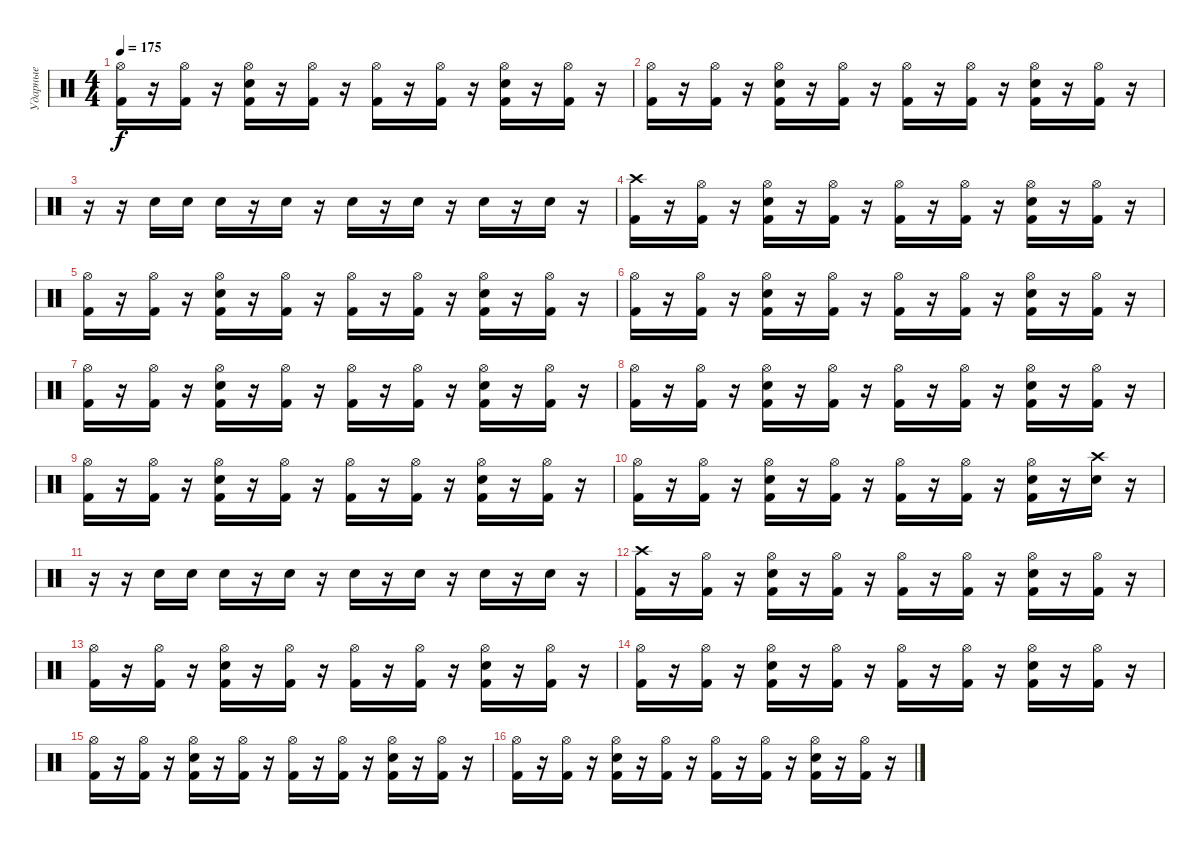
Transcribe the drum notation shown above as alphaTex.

\track ("Ударные" "Ударные") {instrument percussion}
\staff {score}
\articulation defaults
\ts (4 4)
\tempo 175
\clef neutral
\ks c
("Hi-Hat (open)" "Kick (hit) 2").16{dy f} r.16 ("Hi-Hat (open)" "Kick (hit) 2").16 r.16 ("Hi-Hat (open)" "Electric Snare (hit)" "Kick (hit) 2").16 r.16 ("Hi-Hat (open)" "Kick (hit) 2").16 r.16 ("Hi-Hat (open)" "Kick (hit) 2").16 r.16 ("Hi-Hat (open)" "Kick (hit) 2").16 r.16 ("Hi-Hat (open)" "Electric Snare (hit)" "Kick (hit) 2").16 r.16 ("Hi-Hat (open)" "Kick (hit) 2").16 r.16 |
("Hi-Hat (open)" "Kick (hit) 2").16 r.16 ("Hi-Hat (open)" "Kick (hit) 2").16 r.16 ("Hi-Hat (open)" "Electric Snare (hit)" "Kick (hit) 2").16 r.16 ("Hi-Hat (open)" "Kick (hit) 2").16 r.16 ("Hi-Hat (open)" "Kick (hit) 2").16 r.16 ("Hi-Hat (open)" "Kick (hit) 2").16 r.16 ("Hi-Hat (open)" "Electric Snare (hit)" "Kick (hit) 2").16 r.16 ("Hi-Hat (open)" "Kick (hit) 2").16 r.16 |
r.16 r.16 "Electric Snare (hit)".16 "Electric Snare (hit)".16 "Electric Snare (hit)".16 r.16 "Electric Snare (hit)".16 r.16 "Electric Snare (hit)".16 r.16 "Electric Snare (hit)".16 r.16 "Electric Snare (hit)".16 r.16 "Electric Snare (hit)".16 r.16 |
("Crash high (hit)" "Kick (hit) 2").16 r.16 ("Hi-Hat (open)" "Kick (hit) 2").16 r.16 ("Hi-Hat (open)" "Electric Snare (hit)" "Kick (hit) 2").16 r.16 ("Hi-Hat (open)" "Kick (hit) 2").16 r.16 ("Hi-Hat (open)" "Kick (hit) 2").16 r.16 ("Hi-Hat (open)" "Kick (hit) 2").16 r.16 ("Hi-Hat (open)" "Electric Snare (hit)" "Kick (hit) 2").16 r.16 ("Hi-Hat (open)" "Kick (hit) 2").16 r.16 |
("Hi-Hat (open)" "Kick (hit) 2").16 r.16 ("Hi-Hat (open)" "Kick (hit) 2").16 r.16 ("Hi-Hat (open)" "Electric Snare (hit)" "Kick (hit) 2").16 r.16 ("Hi-Hat (open)" "Kick (hit) 2").16 r.16 ("Hi-Hat (open)" "Kick (hit) 2").16 r.16 ("Hi-Hat (open)" "Kick (hit) 2").16 r.16 ("Hi-Hat (open)" "Electric Snare (hit)" "Kick (hit) 2").16 r.16 ("Hi-Hat (open)" "Kick (hit) 2").16 r.16 |
("Hi-Hat (open)" "Kick (hit) 2").16 r.16 ("Hi-Hat (open)" "Kick (hit) 2").16 r.16 ("Hi-Hat (open)" "Electric Snare (hit)" "Kick (hit) 2").16 r.16 ("Hi-Hat (open)" "Kick (hit) 2").16 r.16 ("Hi-Hat (open)" "Kick (hit) 2").16 r.16 ("Hi-Hat (open)" "Kick (hit) 2").16 r.16 ("Hi-Hat (open)" "Electric Snare (hit)" "Kick (hit) 2").16 r.16 ("Hi-Hat (open)" "Kick (hit) 2").16 r.16 |
("Hi-Hat (open)" "Kick (hit) 2").16 r.16 ("Hi-Hat (open)" "Kick (hit) 2").16 r.16 ("Hi-Hat (open)" "Electric Snare (hit)" "Kick (hit) 2").16 r.16 ("Hi-Hat (open)" "Kick (hit) 2").16 r.16 ("Hi-Hat (open)" "Kick (hit) 2").16 r.16 ("Hi-Hat (open)" "Kick (hit) 2").16 r.16 ("Hi-Hat (open)" "Electric Snare (hit)" "Kick (hit) 2").16 r.16 ("Hi-Hat (open)" "Kick (hit) 2").16 r.16 |
("Hi-Hat (open)" "Kick (hit) 2").16 r.16 ("Hi-Hat (open)" "Kick (hit) 2").16 r.16 ("Hi-Hat (open)" "Electric Snare (hit)" "Kick (hit) 2").16 r.16 ("Hi-Hat (open)" "Kick (hit) 2").16 r.16 ("Hi-Hat (open)" "Kick (hit) 2").16 r.16 ("Hi-Hat (open)" "Kick (hit) 2").16 r.16 ("Hi-Hat (open)" "Electric Snare (hit)" "Kick (hit) 2").16 r.16 ("Hi-Hat (open)" "Kick (hit) 2").16 r.16 |
("Hi-Hat (open)" "Kick (hit) 2").16 r.16 ("Hi-Hat (open)" "Kick (hit) 2").16 r.16 ("Hi-Hat (open)" "Electric Snare (hit)" "Kick (hit) 2").16 r.16 ("Hi-Hat (open)" "Kick (hit) 2").16 r.16 ("Hi-Hat (open)" "Kick (hit) 2").16 r.16 ("Hi-Hat (open)" "Kick (hit) 2").16 r.16 ("Hi-Hat (open)" "Electric Snare (hit)" "Kick (hit) 2").16 r.16 ("Hi-Hat (open)" "Kick (hit) 2").16 r.16 |
("Hi-Hat (open)" "Kick (hit) 2").16 r.16 ("Hi-Hat (open)" "Kick (hit) 2").16 r.16 ("Hi-Hat (open)" "Electric Snare (hit)" "Kick (hit) 2").16 r.16 ("Hi-Hat (open)" "Kick (hit) 2").16 r.16 ("Hi-Hat (open)" "Kick (hit) 2").16 r.16 ("Hi-Hat (open)" "Kick (hit) 2").16 r.16 ("Hi-Hat (open)" "Electric Snare (hit)" "Kick (hit) 2").16 r.16 ("Crash high (hit)" "Electric Snare (hit)").16 r.16 |
r.16 r.16 "Electric Snare (hit)".16 "Electric Snare (hit)".16 "Electric Snare (hit)".16 r.16 "Electric Snare (hit)".16 r.16 "Electric Snare (hit)".16 r.16 "Electric Snare (hit)".16 r.16 "Electric Snare (hit)".16 r.16 "Electric Snare (hit)".16 r.16 |
("Crash high (hit)" "Kick (hit) 2").16 r.16 ("Hi-Hat (open)" "Kick (hit) 2").16 r.16 ("Hi-Hat (open)" "Electric Snare (hit)" "Kick (hit) 2").16 r.16 ("Hi-Hat (open)" "Kick (hit) 2").16 r.16 ("Hi-Hat (open)" "Kick (hit) 2").16 r.16 ("Hi-Hat (open)" "Kick (hit) 2").16 r.16 ("Hi-Hat (open)" "Electric Snare (hit)" "Kick (hit) 2").16 r.16 ("Hi-Hat (open)" "Kick (hit) 2").16 r.16 |
("Hi-Hat (open)" "Kick (hit) 2").16 r.16 ("Hi-Hat (open)" "Kick (hit) 2").16 r.16 ("Hi-Hat (open)" "Electric Snare (hit)" "Kick (hit) 2").16 r.16 ("Hi-Hat (open)" "Kick (hit) 2").16 r.16 ("Hi-Hat (open)" "Kick (hit) 2").16 r.16 ("Hi-Hat (open)" "Kick (hit) 2").16 r.16 ("Hi-Hat (open)" "Electric Snare (hit)" "Kick (hit) 2").16 r.16 ("Hi-Hat (open)" "Kick (hit) 2").16 r.16 |
("Hi-Hat (open)" "Kick (hit) 2").16 r.16 ("Hi-Hat (open)" "Kick (hit) 2").16 r.16 ("Hi-Hat (open)" "Electric Snare (hit)" "Kick (hit) 2").16 r.16 ("Hi-Hat (open)" "Kick (hit) 2").16 r.16 ("Hi-Hat (open)" "Kick (hit) 2").16 r.16 ("Hi-Hat (open)" "Kick (hit) 2").16 r.16 ("Hi-Hat (open)" "Electric Snare (hit)" "Kick (hit) 2").16 r.16 ("Hi-Hat (open)" "Kick (hit) 2").16 r.16 |
("Hi-Hat (open)" "Kick (hit) 2").16 r.16 ("Hi-Hat (open)" "Kick (hit) 2").16 r.16 ("Hi-Hat (open)" "Electric Snare (hit)" "Kick (hit) 2").16 r.16 ("Hi-Hat (open)" "Kick (hit) 2").16 r.16 ("Hi-Hat (open)" "Kick (hit) 2").16 r.16 ("Hi-Hat (open)" "Kick (hit) 2").16 r.16 ("Hi-Hat (open)" "Electric Snare (hit)" "Kick (hit) 2").16 r.16 ("Hi-Hat (open)" "Kick (hit) 2").16 r.16 |
("Hi-Hat (open)" "Kick (hit) 2").16 r.16 ("Hi-Hat (open)" "Kick (hit) 2").16 r.16 ("Hi-Hat (open)" "Electric Snare (hit)" "Kick (hit) 2").16 r.16 ("Hi-Hat (open)" "Kick (hit) 2").16 r.16 ("Hi-Hat (open)" "Kick (hit) 2").16 r.16 ("Hi-Hat (open)" "Kick (hit) 2").16 r.16 ("Hi-Hat (open)" "Electric Snare (hit)" "Kick (hit) 2").16 r.16 ("Hi-Hat (open)" "Kick (hit) 2").16 r.16
